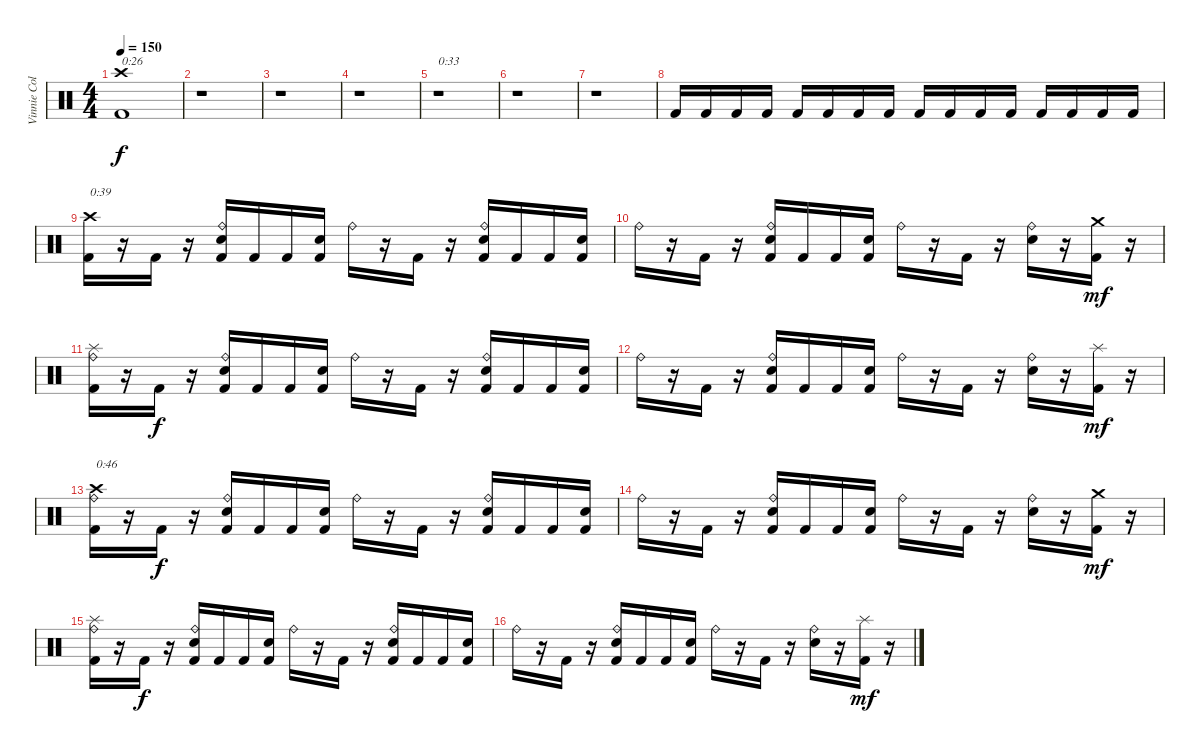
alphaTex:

\track ("Vinnie Colaiuta" "Vinnie Col") {instrument percussion}
\staff {score}
\articulation defaults
\ts (4 4)
\tempo 150
\clef neutral
\ks c
("Crash high (hit)" "Kick (hit) 2").1{txt "0:26" dy f} |
r.1 |
r.1 |
r.1 |
r.1{txt "0:33"} |
r.1 |
r.1 |
"Kick (hit) 2".16 "Kick (hit) 2".16 "Kick (hit) 2".16 "Kick (hit) 2".16 "Kick (hit) 2".16 "Kick (hit) 2".16 "Kick (hit) 2".16 "Kick (hit) 2".16 "Kick (hit) 2".16 "Kick (hit) 2".16 "Kick (hit) 2".16 "Kick (hit) 2".16 "Kick (hit) 2".16 "Kick (hit) 2".16 "Kick (hit) 2".16 "Kick (hit) 2".16 |
("Crash high (hit)" "Kick (hit) 2").16{txt "0:39"} r.16 "Kick (hit) 2".16 r.16 ("Ride (bell)" "Electric Snare (hit)" "Kick (hit) 2").16 "Kick (hit) 2".16 "Kick (hit) 2".16 ("Electric Snare (hit)" "Kick (hit) 2").16 "Ride (bell)".16 r.16 "Kick (hit) 2".16 r.16 ("Ride (bell)" "Electric Snare (hit)" "Kick (hit) 2").16 "Kick (hit) 2".16 "Kick (hit) 2".16 ("Electric Snare (hit)" "Kick (hit) 2").16 |
"Ride (bell)".16 r.16 "Kick (hit) 2".16 r.16 ("Ride (bell)" "Electric Snare (hit)" "Kick (hit) 2").16 "Kick (hit) 2".16 "Kick (hit) 2".16 ("Electric Snare (hit)" "Kick (hit) 2").16 "Ride (bell)".16 r.16 "Kick (hit) 2".16 r.16 ("Ride (bell)" "Electric Snare (hit)").16 r.16 ("Crash medium (hit)" "Kick (hit) 2").16{dy mf} r.16 |
("Splash (hit)" "Ride (bell)" "Kick (hit) 2").16 r.16 "Kick (hit) 2".16{dy f} r.16 ("Ride (bell)" "Electric Snare (hit)" "Kick (hit) 2").16 "Kick (hit) 2".16 "Kick (hit) 2".16 ("Electric Snare (hit)" "Kick (hit) 2").16 "Ride (bell)".16 r.16 "Kick (hit) 2".16 r.16 ("Ride (bell)" "Electric Snare (hit)" "Kick (hit) 2").16 "Kick (hit) 2".16 "Kick (hit) 2".16 ("Electric Snare (hit)" "Kick (hit) 2").16 |
"Ride (bell)".16 r.16 "Kick (hit) 2".16 r.16 ("Ride (bell)" "Electric Snare (hit)" "Kick (hit) 2").16 "Kick (hit) 2".16 "Kick (hit) 2".16 ("Electric Snare (hit)" "Kick (hit) 2").16 "Ride (bell)".16 r.16 "Kick (hit) 2".16 r.16 ("Ride (bell)" "Electric Snare (hit)").16 r.16 ("Splash (hit)" "Kick (hit) 2").16{dy mf} r.16 |
("Crash high (hit)" "Ride (bell)" "Kick (hit) 2").16{txt "0:46"} r.16 "Kick (hit) 2".16{dy f} r.16 ("Ride (bell)" "Electric Snare (hit)" "Kick (hit) 2").16 "Kick (hit) 2".16 "Kick (hit) 2".16 ("Electric Snare (hit)" "Kick (hit) 2").16 "Ride (bell)".16 r.16 "Kick (hit) 2".16 r.16 ("Ride (bell)" "Electric Snare (hit)" "Kick (hit) 2").16 "Kick (hit) 2".16 "Kick (hit) 2".16 ("Electric Snare (hit)" "Kick (hit) 2").16 |
"Ride (bell)".16 r.16 "Kick (hit) 2".16 r.16 ("Ride (bell)" "Electric Snare (hit)" "Kick (hit) 2").16 "Kick (hit) 2".16 "Kick (hit) 2".16 ("Electric Snare (hit)" "Kick (hit) 2").16 "Ride (bell)".16 r.16 "Kick (hit) 2".16 r.16 ("Ride (bell)" "Electric Snare (hit)").16 r.16 ("Crash medium (hit)" "Kick (hit) 2").16{dy mf} r.16 |
("Splash (hit)" "Ride (bell)" "Kick (hit) 2").16 r.16 "Kick (hit) 2".16{dy f} r.16 ("Ride (bell)" "Electric Snare (hit)" "Kick (hit) 2").16 "Kick (hit) 2".16 "Kick (hit) 2".16 ("Electric Snare (hit)" "Kick (hit) 2").16 "Ride (bell)".16 r.16 "Kick (hit) 2".16 r.16 ("Ride (bell)" "Electric Snare (hit)" "Kick (hit) 2").16 "Kick (hit) 2".16 "Kick (hit) 2".16 ("Electric Snare (hit)" "Kick (hit) 2").16 |
"Ride (bell)".16 r.16 "Kick (hit) 2".16 r.16 ("Ride (bell)" "Electric Snare (hit)" "Kick (hit) 2").16 "Kick (hit) 2".16 "Kick (hit) 2".16 ("Electric Snare (hit)" "Kick (hit) 2").16 "Ride (bell)".16 r.16 "Kick (hit) 2".16 r.16 ("Ride (bell)" "Electric Snare (hit)").16 r.16 ("Splash (hit)" "Kick (hit) 2").16{dy mf} r.16
